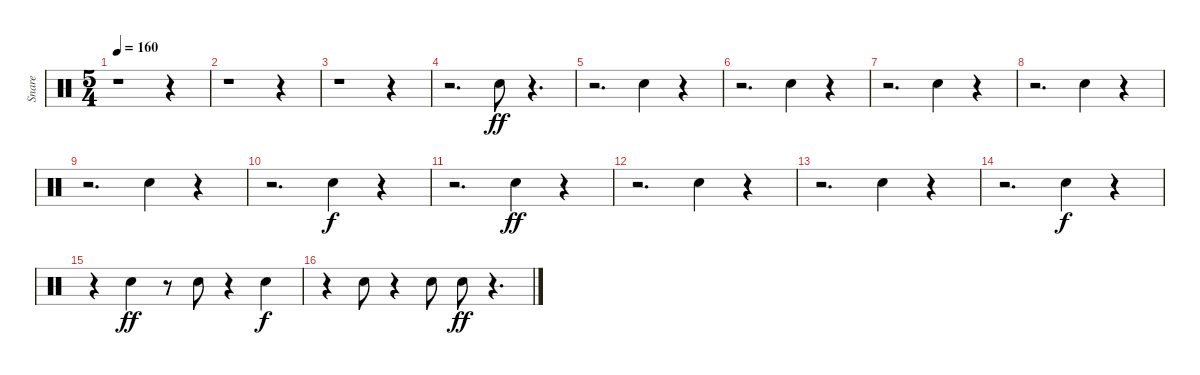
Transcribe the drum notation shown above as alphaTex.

\track ("Snare" "Snare") {instrument percussion}
\staff {score}
\articulation defaults
\ts (5 4)
\tempo 160
\clef neutral
\ks c
r.1{dy ff} r.4 |
r.1 r.4 |
r.1 r.4 |
r.2{d} "Electric Snare (hit)".8 r.4{d} |
r.2{d} "Electric Snare (hit)".4 r.4 |
r.2{d} "Electric Snare (hit)".4 r.4 |
r.2{d} "Electric Snare (hit)".4 r.4 |
r.2{d} "Electric Snare (hit)".4 r.4 |
r.2{d} "Electric Snare (hit)".4 r.4 |
r.2{d} "Electric Snare (hit)".4{dy f} r.4 |
r.2{d} "Electric Snare (hit)".4{dy ff} r.4 |
r.2{d} "Electric Snare (hit)".4 r.4 |
r.2{d} "Electric Snare (hit)".4 r.4 |
r.2{d} "Electric Snare (hit)".4{dy f} r.4 |
r.4 "Snare (hit) 2".4{dy ff} r.8 "Electric Snare (hit)".8 r.4 "Snare (hit) 2".4{dy f} |
r.4 "Electric Snare (hit)".8 r.4 "Electric Snare (hit)".8 "Electric Snare (hit)".8{dy ff} r.4{d}
